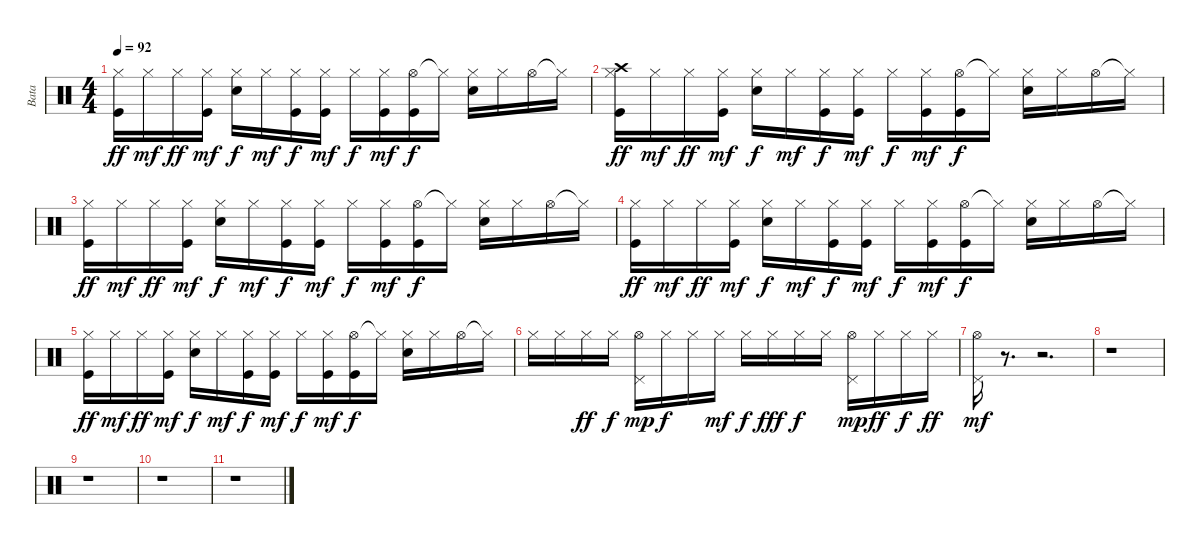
\track ("Bata" "Bata") {instrument percussion}
\staff {score}
\articulation defaults
\ts (4 4)
\tempo 92
\clef neutral
\ks c
("Hi-Hat (closed)" "Kick (hit)").16{dy ff} "Hi-Hat (closed)".16{dy mf} "Hi-Hat (closed)".16{dy ff} ("Hi-Hat (closed)" "Kick (hit)").16{dy mf} ("Hi-Hat (closed)" "Electric Snare (hit)").16{dy f} "Hi-Hat (closed)".16{dy mf} ("Hi-Hat (closed)" "Kick (hit)").16{dy f} ("Hi-Hat (closed)" "Kick (hit)").16{dy mf} "Hi-Hat (closed)".16{dy f} ("Hi-Hat (closed)" "Kick (hit)").16{dy mf} ("Hi-Hat (open)" "Kick (hit)").16{dy f} "Hi-Hat (closed)"{t}.16 ("Hi-Hat (closed)" "Electric Snare (hit)").16 "Hi-Hat (closed)".16 "Hi-Hat (open)".16 "Hi-Hat (closed)"{t}.16 |
("Hi-Hat (closed)" "Crash high (hit)" "Kick (hit)").16{dy ff} "Hi-Hat (closed)".16{dy mf} "Hi-Hat (closed)".16{dy ff} ("Hi-Hat (closed)" "Kick (hit)").16{dy mf} ("Hi-Hat (closed)" "Electric Snare (hit)").16{dy f} "Hi-Hat (closed)".16{dy mf} ("Hi-Hat (closed)" "Kick (hit)").16{dy f} ("Hi-Hat (closed)" "Kick (hit)").16{dy mf} "Hi-Hat (closed)".16{dy f} ("Hi-Hat (closed)" "Kick (hit)").16{dy mf} ("Hi-Hat (open)" "Kick (hit)").16{dy f} "Hi-Hat (closed)"{t}.16 ("Hi-Hat (closed)" "Electric Snare (hit)").16 "Hi-Hat (closed)".16 "Hi-Hat (open)".16 "Hi-Hat (closed)"{t}.16 |
("Hi-Hat (closed)" "Kick (hit)").16{dy ff} "Hi-Hat (closed)".16{dy mf} "Hi-Hat (closed)".16{dy ff} ("Hi-Hat (closed)" "Kick (hit)").16{dy mf} ("Hi-Hat (closed)" "Electric Snare (hit)").16{dy f} "Hi-Hat (closed)".16{dy mf} ("Hi-Hat (closed)" "Kick (hit)").16{dy f} ("Hi-Hat (closed)" "Kick (hit)").16{dy mf} "Hi-Hat (closed)".16{dy f} ("Hi-Hat (closed)" "Kick (hit)").16{dy mf} ("Hi-Hat (open)" "Kick (hit)").16{dy f} "Hi-Hat (closed)"{t}.16 ("Hi-Hat (closed)" "Electric Snare (hit)").16 "Hi-Hat (closed)".16 "Hi-Hat (open)".16 "Hi-Hat (closed)"{t}.16 |
("Hi-Hat (closed)" "Kick (hit)").16{dy ff} "Hi-Hat (closed)".16{dy mf} "Hi-Hat (closed)".16{dy ff} ("Hi-Hat (closed)" "Kick (hit)").16{dy mf} ("Hi-Hat (closed)" "Electric Snare (hit)").16{dy f} "Hi-Hat (closed)".16{dy mf} ("Hi-Hat (closed)" "Kick (hit)").16{dy f} ("Hi-Hat (closed)" "Kick (hit)").16{dy mf} "Hi-Hat (closed)".16{dy f} ("Hi-Hat (closed)" "Kick (hit)").16{dy mf} ("Hi-Hat (open)" "Kick (hit)").16{dy f} "Hi-Hat (closed)"{t}.16 ("Hi-Hat (closed)" "Electric Snare (hit)").16 "Hi-Hat (closed)".16 "Hi-Hat (open)".16 "Hi-Hat (closed)"{t}.16 |
("Hi-Hat (closed)" "Kick (hit)").16{dy ff} "Hi-Hat (closed)".16{dy mf} "Hi-Hat (closed)".16{dy ff} ("Hi-Hat (closed)" "Kick (hit)").16{dy mf} ("Hi-Hat (closed)" "Electric Snare (hit)").16{dy f} "Hi-Hat (closed)".16{dy mf} ("Hi-Hat (closed)" "Kick (hit)").16{dy f} ("Hi-Hat (closed)" "Kick (hit)").16{dy mf} "Hi-Hat (closed)".16{dy f} ("Hi-Hat (closed)" "Kick (hit)").16{dy mf} ("Hi-Hat (open)" "Kick (hit)").16{dy f} "Hi-Hat (closed)"{t}.16 ("Hi-Hat (closed)" "Electric Snare (hit)").16 "Hi-Hat (closed)".16 "Hi-Hat (open)".16 "Hi-Hat (closed)"{t}.16 |
"Hi-Hat (closed)".16 "Hi-Hat (closed)".16 "Hi-Hat (closed)".16{dy ff} "Hi-Hat (closed)".16{dy f} ("Pedal Hi-Hat (hit)" "Hi-Hat (open)").16{dy mp} "Hi-Hat (closed)".16{dy f} "Hi-Hat (closed)".16 "Hi-Hat (closed)".16{dy mf} "Hi-Hat (closed)".16{dy f} "Hi-Hat (closed)".16{dy fff} "Hi-Hat (closed)".16{dy f} "Hi-Hat (closed)".16 ("Pedal Hi-Hat (hit)" "Hi-Hat (open)").16{dy mp} "Hi-Hat (closed)".16{dy ff} "Hi-Hat (closed)".16{dy f} "Hi-Hat (closed)".16{dy ff} |
("Pedal Hi-Hat (hit)" "Hi-Hat (open)").16{dy mf} r.8{d} r.2{d} |
r.1 |
r.1 |
r.1 |
r.1
